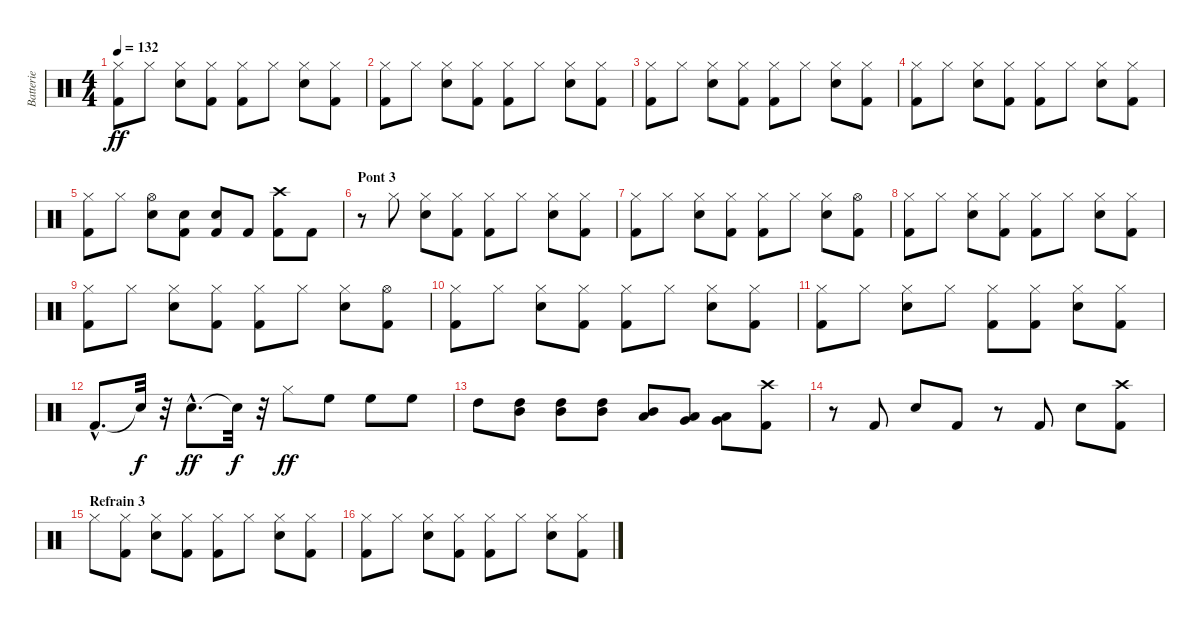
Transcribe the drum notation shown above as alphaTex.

\track ("Batterie" "Batterie") {instrument percussion}
\staff {score}
\articulation defaults
\ts (4 4)
\tempo 132
\clef neutral
\ks c
("Kick (hit) 2" "Hi-Hat (closed)").8{dy ff} "Hi-Hat (closed)".8 ("Snare (hit) 2" "Hi-Hat (closed)").8 ("Kick (hit) 2" "Hi-Hat (closed)").8 ("Kick (hit) 2" "Hi-Hat (closed)").8 "Hi-Hat (closed)".8 ("Snare (hit) 2" "Hi-Hat (closed)").8 ("Kick (hit) 2" "Hi-Hat (closed)").8 |
("Kick (hit) 2" "Hi-Hat (closed)").8 "Hi-Hat (closed)".8 ("Snare (hit) 2" "Hi-Hat (closed)").8 ("Kick (hit) 2" "Hi-Hat (closed)").8 ("Kick (hit) 2" "Hi-Hat (closed)").8 "Hi-Hat (closed)".8 ("Snare (hit) 2" "Hi-Hat (closed)").8 ("Kick (hit) 2" "Hi-Hat (closed)").8 |
("Kick (hit) 2" "Hi-Hat (closed)").8 "Hi-Hat (closed)".8 ("Snare (hit) 2" "Hi-Hat (closed)").8 ("Kick (hit) 2" "Hi-Hat (closed)").8 ("Kick (hit) 2" "Hi-Hat (closed)").8 "Hi-Hat (closed)".8 ("Snare (hit) 2" "Hi-Hat (closed)").8 ("Kick (hit) 2" "Hi-Hat (closed)").8 |
("Kick (hit) 2" "Hi-Hat (closed)").8 "Hi-Hat (closed)".8 ("Snare (hit) 2" "Hi-Hat (closed)").8 ("Kick (hit) 2" "Hi-Hat (closed)").8 ("Kick (hit) 2" "Hi-Hat (closed)").8 "Hi-Hat (closed)".8 ("Snare (hit) 2" "Hi-Hat (closed)").8 ("Kick (hit) 2" "Hi-Hat (closed)").8 |
("Kick (hit) 2" "Hi-Hat (closed)").8 "Hi-Hat (closed)".8 ("Snare (hit) 2" "Hi-Hat (open)").8 ("Kick (hit) 2" "Snare (hit) 2").8 ("Kick (hit) 2" "Snare (hit) 2").8 "Kick (hit) 2".8 ("Kick (hit) 2" "Crash high (hit)").8 "Kick (hit) 2".8 |
\section ("" "Pont 3")
r.8 "Hi-Hat (closed)".8 ("Snare (hit) 2" "Hi-Hat (closed)").8 ("Kick (hit) 2" "Hi-Hat (closed)").8 ("Kick (hit) 2" "Hi-Hat (closed)").8 "Hi-Hat (closed)".8 ("Snare (hit) 2" "Hi-Hat (closed)").8 ("Kick (hit) 2" "Hi-Hat (closed)").8 |
("Kick (hit) 2" "Hi-Hat (closed)").8 "Hi-Hat (closed)".8 ("Snare (hit) 2" "Hi-Hat (closed)").8 ("Kick (hit) 2" "Hi-Hat (closed)").8 ("Kick (hit) 2" "Hi-Hat (closed)").8 "Hi-Hat (closed)".8 ("Snare (hit) 2" "Hi-Hat (closed)").8 ("Kick (hit) 2" "Hi-Hat (open)").8 |
("Kick (hit) 2" "Hi-Hat (closed)").8 "Hi-Hat (closed)".8 ("Snare (hit) 2" "Hi-Hat (closed)").8 ("Kick (hit) 2" "Hi-Hat (closed)").8 ("Kick (hit) 2" "Hi-Hat (closed)").8 "Hi-Hat (closed)".8 ("Snare (hit) 2" "Hi-Hat (closed)").8 ("Kick (hit) 2" "Hi-Hat (closed)").8 |
("Kick (hit) 2" "Hi-Hat (closed)").8 "Hi-Hat (closed)".8 ("Snare (hit) 2" "Hi-Hat (closed)").8 ("Kick (hit) 2" "Hi-Hat (closed)").8 ("Kick (hit) 2" "Hi-Hat (closed)").8 "Hi-Hat (closed)".8 ("Snare (hit) 2" "Hi-Hat (closed)").8 ("Kick (hit) 2" "Hi-Hat (open)").8 |
("Kick (hit) 2" "Hi-Hat (closed)").8 "Hi-Hat (closed)".8 ("Snare (hit) 2" "Hi-Hat (closed)").8 ("Kick (hit) 2" "Hi-Hat (closed)").8 ("Kick (hit) 2" "Hi-Hat (closed)").8 "Hi-Hat (closed)".8 ("Snare (hit) 2" "Hi-Hat (closed)").8 ("Kick (hit) 2" "Hi-Hat (closed)").8 |
("Kick (hit) 2" "Hi-Hat (closed)").8 "Hi-Hat (closed)".8 ("Snare (hit) 2" "Hi-Hat (closed)").8 "Hi-Hat (closed)".8 ("Kick (hit) 2" "Hi-Hat (closed)").8 ("Kick (hit) 2" "Hi-Hat (closed)").8 ("Snare (hit) 2" "Hi-Hat (closed)").8 ("Kick (hit) 2" "Hi-Hat (closed)").8 |
"Kick (hit) 2"{hac}.8{d} "Snare (hit)"{t}.32{dy f} r.32 "Snare (hit) 2"{hac}.8{d dy ff} "Snare (hit)"{t}.32{dy f} r.32 "Hi-Hat (closed)".8{dy ff} "High Floor Tom (hit)".8 "High Floor Tom (hit)".8 "High Floor Tom (hit)".8 |
"High Tom (hit)".8 ("Mid Tom (hit)" "High Tom (hit)").8 ("Mid Tom (hit)" "High Tom (hit)").8 ("Mid Tom (hit)" "High Tom (hit)").8 ("Low Tom (hit)" "Mid Tom (hit)").8 ("Very Low Tom (hit)" "Low Tom (hit)").8 ("Very Low Tom (hit)" "Low Tom (hit)").8 ("Kick (hit) 2" "Crash high (hit)").8 |
r.8 "Kick (hit) 2".8 "Snare (hit) 2".8 "Kick (hit) 2".8 r.8 "Kick (hit) 2".8 "Snare (hit) 2".8 ("Kick (hit) 2" "Crash high (hit)").8 |
\section ("" "Refrain 3")
"Hi-Hat (closed)".8 ("Kick (hit) 2" "Hi-Hat (closed)").8 ("Snare (hit) 2" "Hi-Hat (closed)").8 ("Kick (hit) 2" "Hi-Hat (closed)").8 ("Kick (hit) 2" "Hi-Hat (closed)").8 "Hi-Hat (closed)".8 ("Snare (hit) 2" "Hi-Hat (closed)").8 ("Kick (hit) 2" "Hi-Hat (closed)").8 |
("Kick (hit) 2" "Hi-Hat (closed)").8 "Hi-Hat (closed)".8 ("Snare (hit) 2" "Hi-Hat (closed)").8 ("Kick (hit) 2" "Hi-Hat (closed)").8 ("Kick (hit) 2" "Hi-Hat (closed)").8 "Hi-Hat (closed)".8 ("Snare (hit) 2" "Hi-Hat (closed)").8 ("Kick (hit) 2" "Hi-Hat (closed)").8
